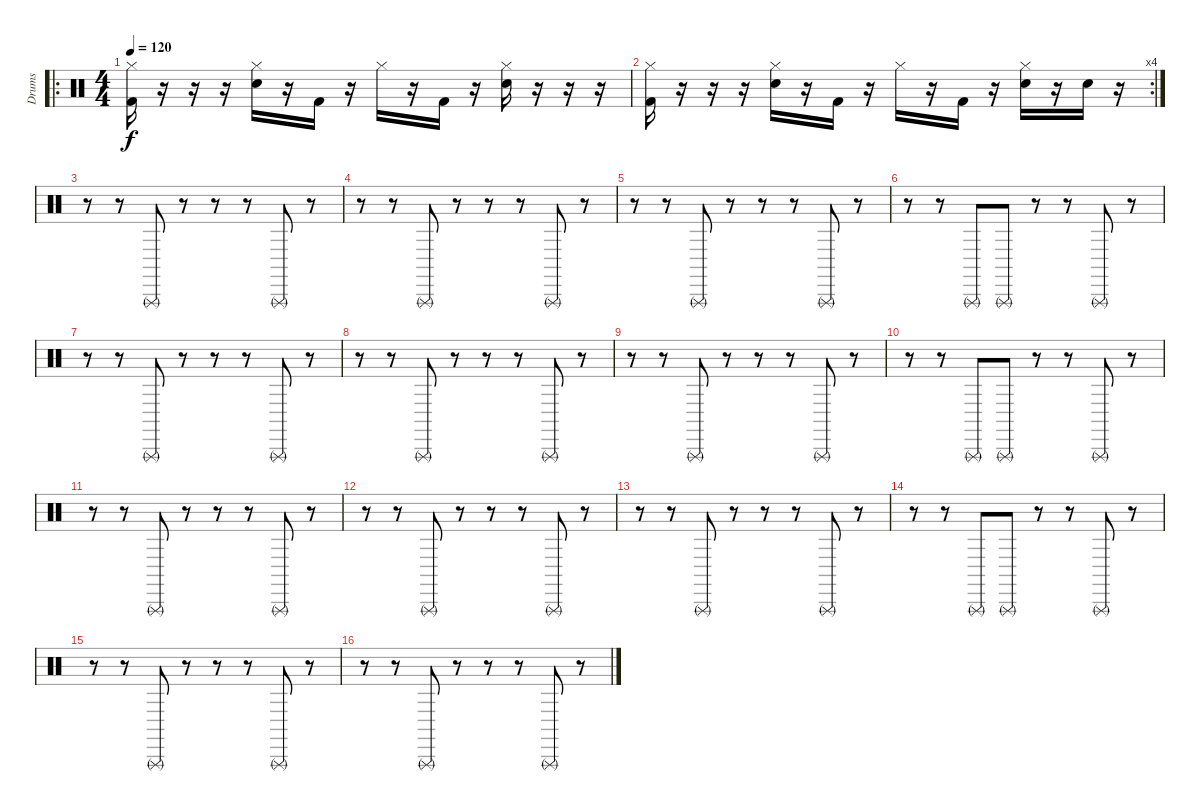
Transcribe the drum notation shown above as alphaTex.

\track ("Drums" "Drums") {instrument percussion}
\staff {score}
\articulation defaults
\ro
\ts (4 4)
\tempo 120
\clef neutral
\ks c
("Hi-Hat (closed)" "Kick (hit) 2").16{dy f} r.16 r.16 r.16 ("Hi-Hat (closed)" "Snare (hit) 2").16 r.16 "Kick (hit) 2".16 r.16 "Hi-Hat (closed)".16 r.16 "Kick (hit) 2".16 r.16 ("Hi-Hat (closed)" "Snare (hit) 2").16 r.16 r.16 r.16 |
\rc 4
("Hi-Hat (closed)" "Kick (hit) 2").16 r.16 r.16 r.16 ("Hi-Hat (closed)" "Snare (hit) 2").16 r.16 "Kick (hit) 2".16 r.16 "Hi-Hat (closed)".16 r.16 "Kick (hit) 2".16 r.16 ("Hi-Hat (closed)" "Snare (hit) 2").16 r.16 "Snare (hit) 2".16 r.16 |
r.8 r.8 "Triangle (rnute)".8 r.8 r.8 r.8 "Triangle (rnute)".8 r.8 |
r.8 r.8 "Triangle (rnute)".8 r.8 r.8 r.8 "Triangle (rnute)".8 r.8 |
r.8 r.8 "Triangle (rnute)".8 r.8 r.8 r.8 "Triangle (rnute)".8 r.8 |
r.8 r.8 "Triangle (rnute)".8 "Triangle (rnute)".8 r.8 r.8 "Triangle (rnute)".8 r.8 |
r.8 r.8 "Triangle (rnute)".8 r.8 r.8 r.8 "Triangle (rnute)".8 r.8 |
r.8 r.8 "Triangle (rnute)".8 r.8 r.8 r.8 "Triangle (rnute)".8 r.8 |
r.8 r.8 "Triangle (rnute)".8 r.8 r.8 r.8 "Triangle (rnute)".8 r.8 |
r.8 r.8 "Triangle (rnute)".8 "Triangle (rnute)".8 r.8 r.8 "Triangle (rnute)".8 r.8 |
r.8 r.8 "Triangle (rnute)".8 r.8 r.8 r.8 "Triangle (rnute)".8 r.8 |
r.8 r.8 "Triangle (rnute)".8 r.8 r.8 r.8 "Triangle (rnute)".8 r.8 |
r.8 r.8 "Triangle (rnute)".8 r.8 r.8 r.8 "Triangle (rnute)".8 r.8 |
r.8 r.8 "Triangle (rnute)".8 "Triangle (rnute)".8 r.8 r.8 "Triangle (rnute)".8 r.8 |
r.8 r.8 "Triangle (rnute)".8 r.8 r.8 r.8 "Triangle (rnute)".8 r.8 |
r.8{volume 0} r.8 "Triangle (rnute)".8 r.8 r.8 r.8 "Triangle (rnute)".8 r.8
